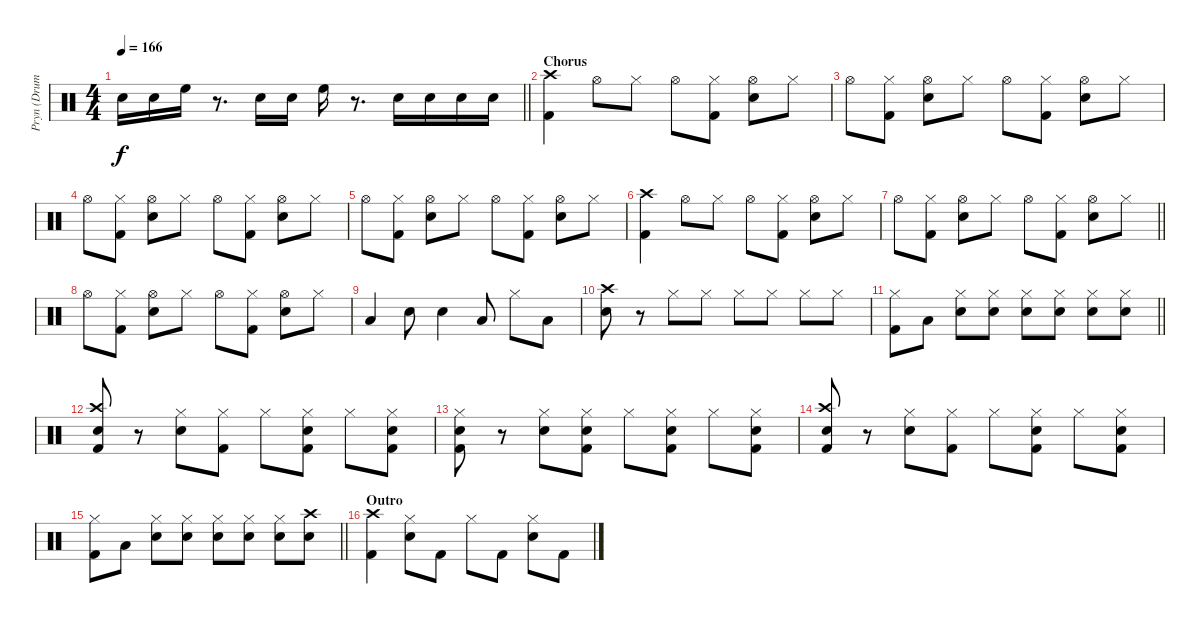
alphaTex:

\track ("Pryn (Drums)" "Pryn (Drum") {instrument percussion}
\staff {score}
\articulation defaults
\ts (4 4)
\tempo 166
\clef neutral
\barLineRight lightlight
\ks c "Snare (hit) 2".16{dy f} "Snare (hit) 2".16 "High Floor Tom (hit)".16
r.8{d} "Snare (hit) 2".16 "Snare (hit) 2".16 "High Floor Tom (hit)".16 r.8{d} "Snare (hit) 2".16 "Snare (hit) 2".16 "Snare (hit) 2".16 "Snare (hit) 2".16 |
\section ("" "Chorus")
("Crash high (hit)" "Kick (hit) 2").4 "Hi-Hat (open)".8 "Hi-Hat (closed)".8 "Hi-Hat (open)".8 ("Hi-Hat (closed)" "Kick (hit) 2").8 ("Hi-Hat (open)" "Snare (hit) 2").8 "Hi-Hat (closed)".8 |
"Hi-Hat (open)".8 ("Hi-Hat (closed)" "Kick (hit) 2").8 ("Hi-Hat (open)" "Snare (hit) 2").8 "Hi-Hat (closed)".8 "Hi-Hat (open)".8 ("Hi-Hat (closed)" "Kick (hit) 2").8 ("Hi-Hat (open)" "Snare (hit) 2").8 "Hi-Hat (closed)".8 |
"Hi-Hat (open)".8 ("Hi-Hat (closed)" "Kick (hit) 2").8 ("Hi-Hat (open)" "Snare (hit) 2").8 "Hi-Hat (closed)".8 "Hi-Hat (open)".8 ("Hi-Hat (closed)" "Kick (hit) 2").8 ("Hi-Hat (open)" "Snare (hit) 2").8 "Hi-Hat (closed)".8 |
"Hi-Hat (open)".8 ("Hi-Hat (closed)" "Kick (hit) 2").8 ("Hi-Hat (open)" "Snare (hit) 2").8 "Hi-Hat (closed)".8 "Hi-Hat (open)".8 ("Hi-Hat (closed)" "Kick (hit) 2").8 ("Hi-Hat (open)" "Snare (hit) 2").8 "Hi-Hat (closed)".8 |
("Crash high (hit)" "Kick (hit) 2").4 "Hi-Hat (open)".8 "Hi-Hat (closed)".8 "Hi-Hat (open)".8 ("Hi-Hat (closed)" "Kick (hit) 2").8 ("Hi-Hat (open)" "Snare (hit) 2").8 "Hi-Hat (closed)".8 |
\barLineRight lightlight "Hi-Hat (open)".8
("Hi-Hat (closed)" "Kick (hit) 2").8 ("Hi-Hat (open)" "Snare (hit) 2").8 "Hi-Hat (closed)".8 "Hi-Hat (open)".8 ("Hi-Hat (closed)" "Kick (hit) 2").8 ("Hi-Hat (open)" "Snare (hit) 2").8 "Hi-Hat (closed)".8 |
"Hi-Hat (open)".8 ("Hi-Hat (closed)" "Kick (hit) 2").8 ("Hi-Hat (open)" "Snare (hit) 2").8 "Hi-Hat (closed)".8 "Hi-Hat (open)".8 ("Hi-Hat (closed)" "Kick (hit) 2").8 ("Hi-Hat (open)" "Snare (hit) 2").8 "Hi-Hat (closed)".8 |
"Low Floor Tom (hit)".4 "Snare (hit) 2".8 "Snare (hit) 2".4 "Low Floor Tom (hit)".8 "Hi-Hat (closed)".8 "Low Floor Tom (hit)".8 |
("Crash high (hit)" "Snare (hit) 2").8 r.8 "Hi-Hat (closed)".8 "Hi-Hat (closed)".8 "Hi-Hat (closed)".8 "Hi-Hat (closed)".8 "Hi-Hat (closed)".8 "Hi-Hat (closed)".8 |
\barLineRight lightlight
("Hi-Hat (closed)" "Kick (hit) 2").8 "Low Floor Tom (hit)".8 ("Hi-Hat (closed)" "Snare (hit) 2").8 ("Hi-Hat (closed)" "Snare (hit) 2").8 ("Hi-Hat (closed)" "Snare (hit) 2").8 ("Hi-Hat (closed)" "Snare (hit) 2").8 ("Hi-Hat (closed)" "Snare (hit) 2").8 ("Hi-Hat (closed)" "Snare (hit) 2").8 |
("Crash high (hit)" "Snare (hit) 2" "Kick (hit) 2").8 r.8 ("Hi-Hat (closed)" "Snare (hit) 2").8 ("Hi-Hat (closed)" "Kick (hit) 2").8 "Hi-Hat (closed)".8 ("Hi-Hat (closed)" "Snare (hit) 2" "Kick (hit) 2").8 "Hi-Hat (closed)".8 ("Hi-Hat (closed)" "Snare (hit) 2" "Kick (hit) 2").8 |
("Hi-Hat (closed)" "Snare (hit) 2" "Kick (hit) 2").8 r.8 ("Hi-Hat (closed)" "Snare (hit) 2").8 ("Hi-Hat (closed)" "Snare (hit) 2" "Kick (hit) 2").8 "Hi-Hat (closed)".8 ("Hi-Hat (closed)" "Snare (hit) 2" "Kick (hit) 2").8 "Hi-Hat (closed)".8 ("Hi-Hat (closed)" "Snare (hit) 2" "Kick (hit) 2").8 |
("Crash high (hit)" "Snare (hit) 2" "Kick (hit) 2").8 r.8 ("Hi-Hat (closed)" "Snare (hit) 2").8 ("Hi-Hat (closed)" "Kick (hit) 2").8 "Hi-Hat (closed)".8 ("Hi-Hat (closed)" "Snare (hit) 2" "Kick (hit) 2").8 "Hi-Hat (closed)".8 ("Hi-Hat (closed)" "Snare (hit) 2" "Kick (hit) 2").8 |
\barLineRight lightlight
("Hi-Hat (closed)" "Kick (hit) 2").8 "Low Floor Tom (hit)".8 ("Hi-Hat (closed)" "Snare (hit) 2").8 ("Hi-Hat (closed)" "Snare (hit) 2").8 ("Hi-Hat (closed)" "Snare (hit) 2").8 ("Hi-Hat (closed)" "Snare (hit) 2").8 ("Hi-Hat (closed)" "Snare (hit) 2").8 ("Crash high (hit)" "Snare (hit) 2").8 |
\section ("" "Outro")
("Crash high (hit)" "Kick (hit) 2").4 ("Hi-Hat (closed)" "Snare (hit) 2").8 "Kick (hit) 2".8 "Hi-Hat (closed)".8 "Kick (hit) 2".8 ("Hi-Hat (closed)" "Snare (hit) 2").8 "Kick (hit) 2".8
